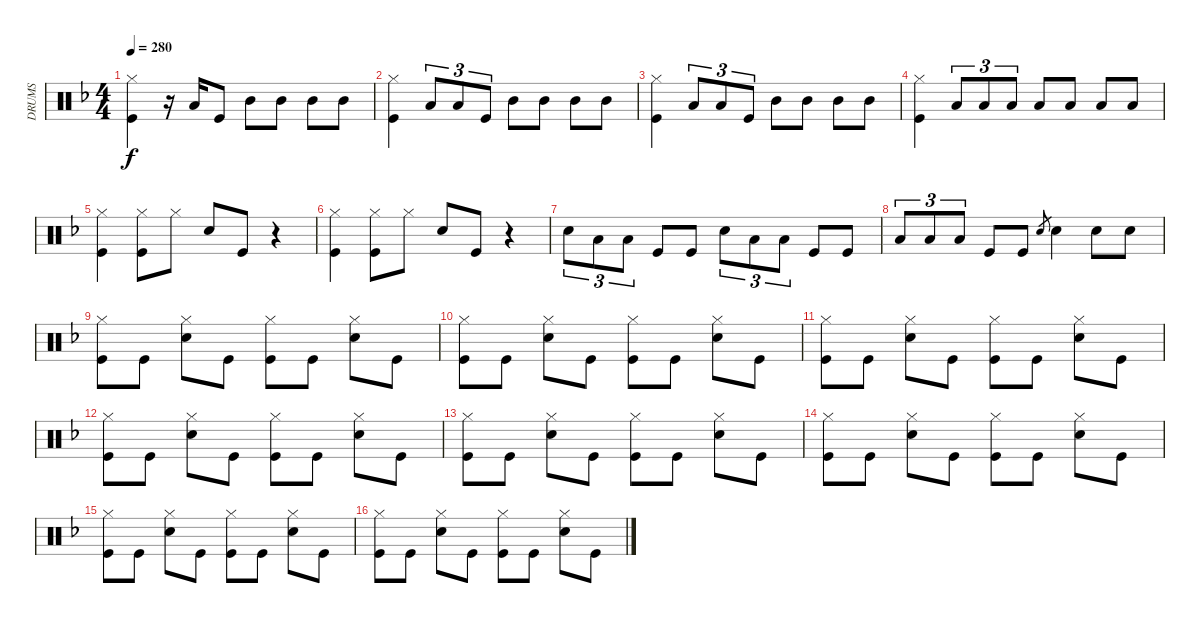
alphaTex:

\track ("DRUMS" "DRUMS") {instrument percussion}
\staff {score}
\articulation defaults
\ts (4 4)
\tempo 280
\clef neutral
\ks dminor
("Hi-Hat (closed)" "Kick (hit)").4{dy f} r.16 "Low Tom (hit)".16 "Kick (hit)".8 "Mid Tom (hit)".8 "Mid Tom (hit)".8 "Mid Tom (hit)".8 "Mid Tom (hit)".8 |
("Hi-Hat (closed)" "Kick (hit)").4 "Low Tom (hit)".8{tu (3 2)} "Low Tom (hit)".8{tu (3 2)} "Kick (hit)".8{tu (3 2)} "Mid Tom (hit)".8 "Mid Tom (hit)".8 "Mid Tom (hit)".8 "Mid Tom (hit)".8 |
("Hi-Hat (closed)" "Kick (hit)").4 "Low Tom (hit)".8{tu (3 2)} "Low Tom (hit)".8{tu (3 2)} "Kick (hit)".8{tu (3 2)} "Mid Tom (hit)".8 "Mid Tom (hit)".8 "Mid Tom (hit)".8 "Mid Tom (hit)".8 |
("Hi-Hat (closed)" "Kick (hit)").4 "Low Tom (hit)".8{tu (3 2)} "Low Tom (hit)".8{tu (3 2)} "Low Tom (hit)".8{tu (3 2)} "Low Tom (hit)".8 "Low Tom (hit)".8 "Low Tom (hit)".8 "Low Tom (hit)".8 |
("Hi-Hat (closed)" "Kick (hit)").4 ("Hi-Hat (closed)" "Kick (hit)").8 "Hi-Hat (closed)".8 "Snare (hit) 2".8 "Kick (hit)".8 r.4 |
("Hi-Hat (closed)" "Kick (hit)").4 ("Hi-Hat (closed)" "Kick (hit)").8 "Hi-Hat (closed)".8 "Snare (hit) 2".8 "Kick (hit)".8 r.4 |
"Snare (hit) 2".8{tu (3 2)} "Low Tom (hit)".8{tu (3 2)} "Low Tom (hit)".8{tu (3 2)} "Kick (hit)".8 "Kick (hit)".8 "Snare (hit) 2".8{tu (3 2)} "Low Tom (hit)".8{tu (3 2)} "Low Tom (hit)".8{tu (3 2)} "Kick (hit)".8 "Kick (hit)".8 |
"Low Tom (hit)".8{tu (3 2)} "Low Tom (hit)".8{tu (3 2)} "Low Tom (hit)".8{tu (3 2)} "Kick (hit)".8 "Kick (hit)".8 "Snare (hit) 2".8{gr} "Snare (hit) 2".4 "Snare (hit) 2".8 "Snare (hit) 2".8 |
("Hi-Hat (closed)" "Kick (hit)").8 "Kick (hit)".8 ("Hi-Hat (closed)" "Snare (hit) 2").8 "Kick (hit)".8 ("Hi-Hat (closed)" "Kick (hit)").8 "Kick (hit)".8 ("Hi-Hat (closed)" "Snare (hit) 2").8 "Kick (hit)".8 |
("Hi-Hat (closed)" "Kick (hit)").8 "Kick (hit)".8 ("Hi-Hat (closed)" "Snare (hit) 2").8 "Kick (hit)".8 ("Hi-Hat (closed)" "Kick (hit)").8 "Kick (hit)".8 ("Hi-Hat (closed)" "Snare (hit) 2").8 "Kick (hit)".8 |
("Hi-Hat (closed)" "Kick (hit)").8 "Kick (hit)".8 ("Hi-Hat (closed)" "Snare (hit) 2").8 "Kick (hit)".8 ("Hi-Hat (closed)" "Kick (hit)").8 "Kick (hit)".8 ("Hi-Hat (closed)" "Snare (hit) 2").8 "Kick (hit)".8 |
("Hi-Hat (closed)" "Kick (hit)").8 "Kick (hit)".8 ("Hi-Hat (closed)" "Snare (hit) 2").8 "Kick (hit)".8 ("Hi-Hat (closed)" "Kick (hit)").8 "Kick (hit)".8 ("Hi-Hat (closed)" "Snare (hit) 2").8 "Kick (hit)".8 |
("Hi-Hat (closed)" "Kick (hit)").8 "Kick (hit)".8 ("Hi-Hat (closed)" "Snare (hit) 2").8 "Kick (hit)".8 ("Hi-Hat (closed)" "Kick (hit)").8 "Kick (hit)".8 ("Hi-Hat (closed)" "Snare (hit) 2").8 "Kick (hit)".8 |
("Hi-Hat (closed)" "Kick (hit)").8 "Kick (hit)".8 ("Hi-Hat (closed)" "Snare (hit) 2").8 "Kick (hit)".8 ("Hi-Hat (closed)" "Kick (hit)").8 "Kick (hit)".8 ("Hi-Hat (closed)" "Snare (hit) 2").8 "Kick (hit)".8 |
("Hi-Hat (closed)" "Kick (hit)").8 "Kick (hit)".8 ("Hi-Hat (closed)" "Snare (hit) 2").8 "Kick (hit)".8 ("Hi-Hat (closed)" "Kick (hit)").8 "Kick (hit)".8 ("Hi-Hat (closed)" "Snare (hit) 2").8 "Kick (hit)".8 |
("Hi-Hat (closed)" "Kick (hit)").8 "Kick (hit)".8 ("Hi-Hat (closed)" "Snare (hit) 2").8 "Kick (hit)".8 ("Hi-Hat (closed)" "Kick (hit)").8 "Kick (hit)".8 ("Hi-Hat (closed)" "Snare (hit) 2").8 "Kick (hit)".8
